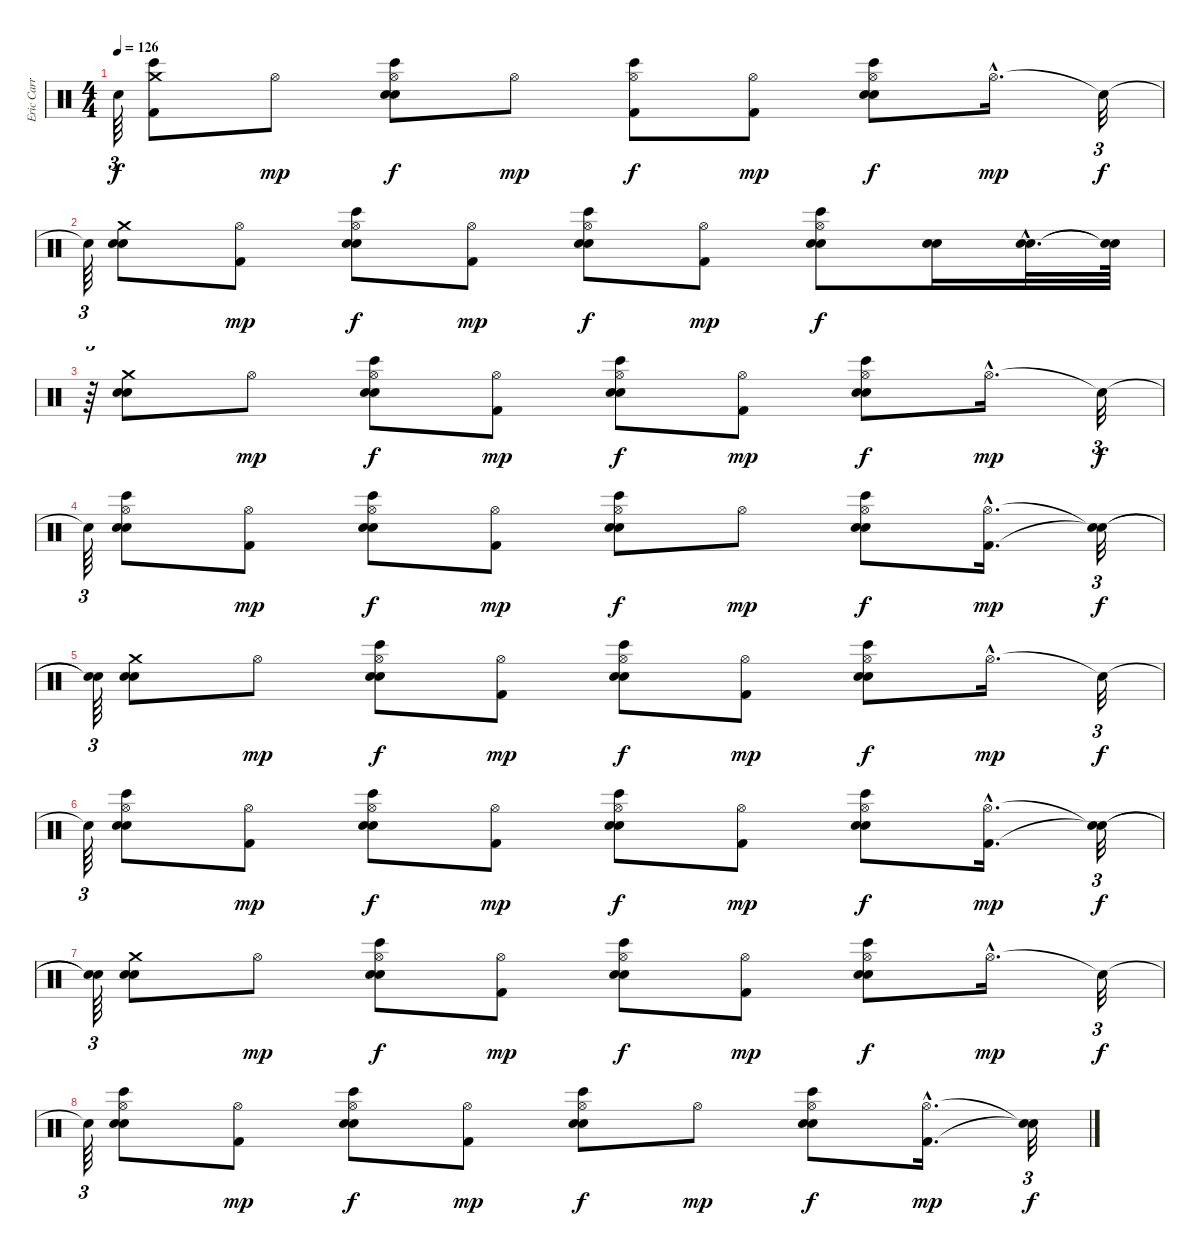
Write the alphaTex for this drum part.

\track ("Eric Carr" "Eric Carr") {instrument percussion}
\staff {score}
\articulation defaults
\ts (4 4)
\tempo 126
\clef neutral
\ks c "Snare (hit)"{t}.64{tu (3 2) dy f}
("Bongo High (hit)" "Crash medium (hit)" "Kick (hit) 2").8 "Hi-Hat (open)".8{dy mp} ("Bongo High (hit)" "Hi-Hat (open)" "Snare (hit) 2" "Electric Snare (hit)").8{dy f} "Hi-Hat (open)".8{dy mp} ("Bongo High (hit)" "Kick (hit) 2" "Hi-Hat (open)").8{dy f} ("Kick (hit) 2" "Hi-Hat (open)").8{dy mp} ("Bongo High (hit)" "Electric Snare (hit)" "Snare (hit) 2" "Hi-Hat (open)").8{dy f} "Hi-Hat (open)"{hac}.16{d dy mp} "Snare (hit)"{t}.32{tu (3 2) dy f} |
"Snare (hit)"{t}.64{tu (3 2)} ("Crash medium (hit)" "Snare (hit) 2" "Electric Snare (hit)").8 ("Kick (hit) 2" "Hi-Hat (open)").8{dy mp} ("Bongo High (hit)" "Hi-Hat (open)" "Snare (hit) 2" "Electric Snare (hit)").8{dy f} ("Kick (hit) 2" "Hi-Hat (open)").8{dy mp} ("Bongo High (hit)" "Electric Snare (hit)" "Snare (hit) 2" "Hi-Hat (open)").8{dy f} ("Kick (hit) 2" "Hi-Hat (open)").8{dy mp} ("Hi-Hat (open)" "Bongo High (hit)" "Electric Snare (hit)" "Snare (hit) 2").8{dy f} ("Electric Snare (hit)" "Snare (hit) 2").16 ("Electric Snare (hit)"{hac} "Snare (hit) 2"{hac}).32{d} ("Snare (hit)"{t} "Snare (hit)"{t}).64 |
r.64{tu (3 2)} ("Crash medium (hit)" "Snare (hit) 2" "Electric Snare (hit)").8 "Hi-Hat (open)".8{dy mp} ("Hi-Hat (open)" "Bongo High (hit)" "Electric Snare (hit)" "Snare (hit) 2").8{dy f} ("Hi-Hat (open)" "Kick (hit) 2").8{dy mp} ("Hi-Hat (open)" "Bongo High (hit)" "Electric Snare (hit)" "Snare (hit) 2").8{dy f} ("Hi-Hat (open)" "Kick (hit) 2").8{dy mp} ("Hi-Hat (open)" "Bongo High (hit)" "Electric Snare (hit)" "Snare (hit) 2").8{dy f} "Hi-Hat (open)"{hac}.16{d dy mp} "Snare (hit)"{t}.32{tu (3 2) dy f} |
"Snare (hit)"{t}.64{tu (3 2)} ("Bongo High (hit)" "Hi-Hat (open)" "Electric Snare (hit)" "Snare (hit) 2").8 ("Hi-Hat (open)" "Kick (hit) 2").8{dy mp} ("Bongo High (hit)" "Hi-Hat (open)" "Electric Snare (hit)" "Snare (hit) 2").8{dy f} ("Hi-Hat (open)" "Kick (hit) 2").8{dy mp} ("Bongo High (hit)" "Hi-Hat (open)" "Electric Snare (hit)" "Snare (hit) 2").8{dy f} "Hi-Hat (open)".8{dy mp} ("Bongo High (hit)" "Hi-Hat (open)" "Electric Snare (hit)" "Snare (hit) 2").8{dy f} ("Kick (hit) 2"{hac} "Hi-Hat (open)"{hac}).16{d dy mp} ("Snare (hit)"{t} "Snare (hit)"{t}).32{tu (3 2) dy f} |
("Snare (hit)"{t} "Snare (hit)"{t}).64{tu (3 2)} ("Crash medium (hit)" "Snare (hit) 2" "Electric Snare (hit)").8 "Hi-Hat (open)".8{dy mp} ("Hi-Hat (open)" "Bongo High (hit)" "Electric Snare (hit)" "Snare (hit) 2").8{dy f} ("Hi-Hat (open)" "Kick (hit) 2").8{dy mp} ("Hi-Hat (open)" "Bongo High (hit)" "Electric Snare (hit)" "Snare (hit) 2").8{dy f} ("Hi-Hat (open)" "Kick (hit) 2").8{dy mp} ("Hi-Hat (open)" "Bongo High (hit)" "Electric Snare (hit)" "Snare (hit) 2").8{dy f} "Hi-Hat (open)"{hac}.16{d dy mp} "Snare (hit)"{t}.32{tu (3 2) dy f} |
"Snare (hit)"{t}.64{tu (3 2)} ("Bongo High (hit)" "Hi-Hat (open)" "Electric Snare (hit)" "Snare (hit) 2").8 ("Hi-Hat (open)" "Kick (hit) 2").8{dy mp} ("Bongo High (hit)" "Hi-Hat (open)" "Electric Snare (hit)" "Snare (hit) 2").8{dy f} ("Hi-Hat (open)" "Kick (hit) 2").8{dy mp} ("Bongo High (hit)" "Hi-Hat (open)" "Electric Snare (hit)" "Snare (hit) 2").8{dy f} ("Kick (hit) 2" "Hi-Hat (open)").8{dy mp} ("Bongo High (hit)" "Hi-Hat (open)" "Electric Snare (hit)" "Snare (hit) 2").8{dy f} ("Kick (hit) 2"{hac} "Hi-Hat (open)"{hac}).16{d dy mp} ("Snare (hit)"{t} "Snare (hit)"{t}).32{tu (3 2) dy f} |
("Snare (hit)"{t} "Snare (hit)"{t}).64{tu (3 2)} ("Crash medium (hit)" "Snare (hit) 2" "Electric Snare (hit)").8 "Hi-Hat (open)".8{dy mp} ("Hi-Hat (open)" "Bongo High (hit)" "Electric Snare (hit)" "Snare (hit) 2").8{dy f} ("Hi-Hat (open)" "Kick (hit) 2").8{dy mp} ("Hi-Hat (open)" "Bongo High (hit)" "Electric Snare (hit)" "Snare (hit) 2").8{dy f} ("Hi-Hat (open)" "Kick (hit) 2").8{dy mp} ("Hi-Hat (open)" "Bongo High (hit)" "Electric Snare (hit)" "Snare (hit) 2").8{dy f} "Hi-Hat (open)"{hac}.16{d dy mp} "Snare (hit)"{t}.32{tu (3 2) dy f} |
"Snare (hit)"{t}.64{tu (3 2)} ("Bongo High (hit)" "Hi-Hat (open)" "Electric Snare (hit)" "Snare (hit) 2").8 ("Hi-Hat (open)" "Kick (hit) 2").8{dy mp} ("Bongo High (hit)" "Hi-Hat (open)" "Electric Snare (hit)" "Snare (hit) 2").8{dy f} ("Hi-Hat (open)" "Kick (hit) 2").8{dy mp} ("Bongo High (hit)" "Hi-Hat (open)" "Electric Snare (hit)" "Snare (hit) 2").8{dy f} "Hi-Hat (open)".8{dy mp} ("Bongo High (hit)" "Hi-Hat (open)" "Electric Snare (hit)" "Snare (hit) 2").8{dy f} ("Kick (hit) 2"{hac} "Hi-Hat (open)"{hac}).16{d dy mp} ("Snare (hit)"{t} "Snare (hit)"{t}).32{tu (3 2) dy f}
